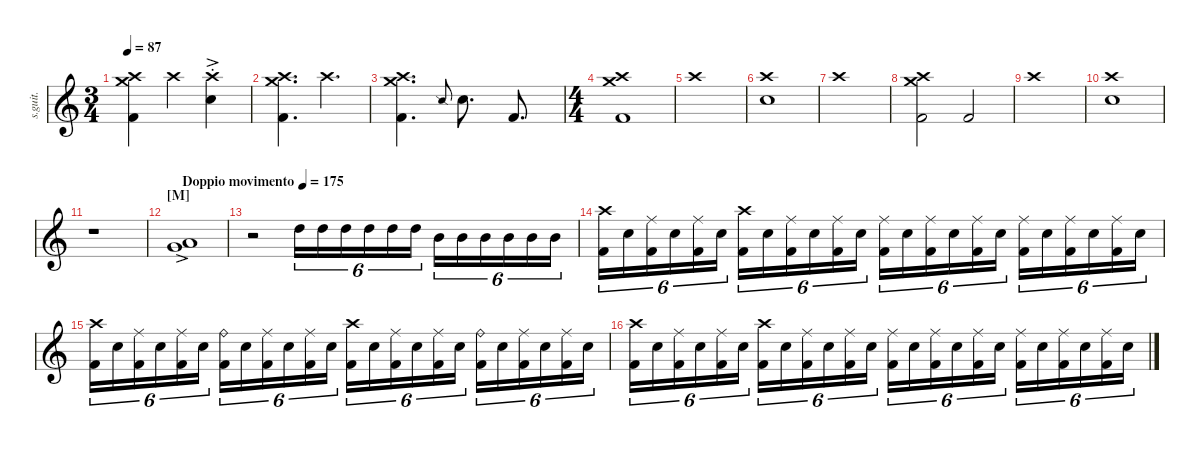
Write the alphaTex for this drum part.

\defaultSystemsLayout 4
\hideDynamics
\bracketExtendMode nobrackets
\track ("" "s.guit.") {instrument percussion}
\staff {score}
\articulation defaults
\ts (3 4)
\tempo 87
\clef g2
\ks c
("Crash high (hit)" "Crash medium (hit)" "Kick (hit) 2").4{dy ff} "Crash high (hit)".4 ("Crash high (hit)"{ac st} "Snare (hit) 2").4 |
("Crash medium (hit)" "Crash high (hit)" "Kick (hit) 2").4{d} "Crash high (hit)".4{d} |
("Crash high (hit)" "Crash medium (hit)" "Kick (hit) 2").4{d} "Snare (side stick) 2".8{gr onbeat} "Snare (hit) 2".8{d} "Kick (hit) 2".8{d} |
\ts (4 4)
\beaming (8 2 2 2 2)
("Crash medium (hit)" "Crash high (hit)" "Kick (hit) 2").1 |
"Crash high (hit)".1 |
("Crash high (hit)" "Snare (hit) 2").1 |
"Crash high (hit)".1 |
("Crash high (hit)" "Crash medium (hit)" "Kick (hit) 2").2 "Kick (hit) 2".2 |
"Crash high (hit)".1 |
("Crash high (hit)" "Snare (hit) 2").1 |
r.1 |
\section ("M" "")
\tempo (175 "Doppio movimento")
("Low Tom (hit)"{ac} "Very Low Tom (hit)"{ac}).1 |
r.2 "High Tom (hit)".16{tu (6 4)} "High Tom (hit)".16{tu (6 4)} "High Tom (hit)".16{tu (6 4)} "High Tom (hit)".16{tu (6 4)} "High Tom (hit)".16{tu (6 4)} "High Tom (hit)".16{tu (6 4)} "Mid Tom (hit)".16{tu (6 4)} "Mid Tom (hit)".16{tu (6 4)} "Mid Tom (hit)".16{tu (6 4)} "Mid Tom (hit)".16{tu (6 4)} "Mid Tom (hit)".16{tu (6 4)} "Mid Tom (hit)".16{tu (6 4)} |
("Crash high (hit)" "Kick (hit) 2").16{tu (6 4)} "Snare (hit) 2".16{tu (6 4)} ("Ride (middle)" "Kick (hit) 2").16{tu (6 4)} "Snare (hit) 2".16{tu (6 4)} ("Ride (middle)" "Kick (hit) 2").16{tu (6 4)} "Snare (hit) 2".16{tu (6 4)} ("Crash high (hit)" "Kick (hit) 2").16{tu (6 4)} "Snare (hit) 2".16{tu (6 4)} ("Ride (middle)" "Kick (hit) 2").16{tu (6 4)} "Snare (hit) 2".16{tu (6 4)} ("Ride (middle)" "Kick (hit) 2").16{tu (6 4)} "Snare (hit) 2".16{tu (6 4)} ("Ride (middle)" "Kick (hit) 2").16{tu (6 4)} "Snare (hit) 2".16{tu (6 4)} ("Ride (middle)" "Kick (hit) 2").16{tu (6 4)} "Snare (hit) 2".16{tu (6 4)} ("Ride (middle)" "Kick (hit) 2").16{tu (6 4)} "Snare (hit) 2".16{tu (6 4)} ("Ride (middle)" "Kick (hit) 2").16{tu (6 4)} "Snare (hit) 2".16{tu (6 4)} ("Ride (middle)" "Kick (hit) 2").16{tu (6 4)} "Snare (hit) 2".16{tu (6 4)} ("Ride (middle)" "Kick (hit) 2").16{tu (6 4)} "Snare (hit) 2".16{tu (6 4)} |
("Crash high (hit)" "Kick (hit) 2").16{tu (6 4)} "Snare (hit) 2".16{tu (6 4)} ("Ride (middle)" "Kick (hit) 2").16{tu (6 4)} "Snare (hit) 2".16{tu (6 4)} ("Ride (middle)" "Kick (hit) 2").16{tu (6 4)} "Snare (hit) 2".16{tu (6 4)} ("Ride (bell)" "Kick (hit) 2").16{tu (6 4)} "Snare (hit) 2".16{tu (6 4)} ("Ride (middle)" "Kick (hit) 2").16{tu (6 4)} "Snare (hit) 2".16{tu (6 4)} ("Ride (middle)" "Kick (hit) 2").16{tu (6 4)} "Snare (hit) 2".16{tu (6 4)} ("Crash high (hit)" "Kick (hit) 2").16{tu (6 4)} "Snare (hit) 2".16{tu (6 4)} ("Ride (middle)" "Kick (hit) 2").16{tu (6 4)} "Snare (hit) 2".16{tu (6 4)} ("Ride (middle)" "Kick (hit) 2").16{tu (6 4)} "Snare (hit) 2".16{tu (6 4)} ("Ride (bell)" "Kick (hit) 2").16{tu (6 4)} "Snare (hit) 2".16{tu (6 4)} ("Ride (middle)" "Kick (hit) 2").16{tu (6 4)} "Snare (hit) 2".16{tu (6 4)} ("Ride (middle)" "Kick (hit) 2").16{tu (6 4)} "Snare (hit) 2".16{tu (6 4)} |
("Crash high (hit)" "Kick (hit) 2").16{tu (6 4)} "Snare (hit) 2".16{tu (6 4)} ("Ride (middle)" "Kick (hit) 2").16{tu (6 4)} "Snare (hit) 2".16{tu (6 4)} ("Ride (middle)" "Kick (hit) 2").16{tu (6 4)} "Snare (hit) 2".16{tu (6 4)} ("Crash high (hit)" "Kick (hit) 2").16{tu (6 4)} "Snare (hit) 2".16{tu (6 4)} ("Ride (middle)" "Kick (hit) 2").16{tu (6 4)} "Snare (hit) 2".16{tu (6 4)} ("Ride (middle)" "Kick (hit) 2").16{tu (6 4)} "Snare (hit) 2".16{tu (6 4)} ("Ride (middle)" "Kick (hit) 2").16{tu (6 4)} "Snare (hit) 2".16{tu (6 4)} ("Ride (middle)" "Kick (hit) 2").16{tu (6 4)} "Snare (hit) 2".16{tu (6 4)} ("Ride (middle)" "Kick (hit) 2").16{tu (6 4)} "Snare (hit) 2".16{tu (6 4)} ("Ride (middle)" "Kick (hit) 2").16{tu (6 4)} "Snare (hit) 2".16{tu (6 4)} ("Ride (middle)" "Kick (hit) 2").16{tu (6 4)} "Snare (hit) 2".16{tu (6 4)} ("Ride (middle)" "Kick (hit) 2").16{tu (6 4)} "Snare (hit) 2".16{tu (6 4)}
